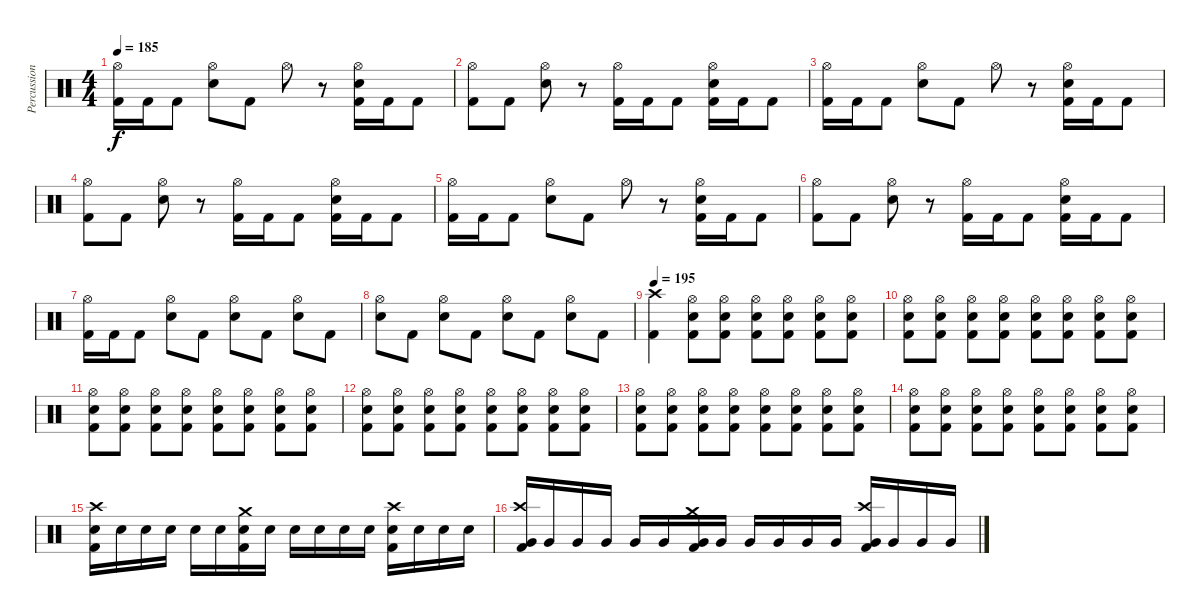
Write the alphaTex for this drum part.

\track ("Percussion" "Percussion") {instrument percussion}
\staff {score}
\articulation defaults
\ts (4 4)
\tempo 185
\clef neutral
\ks c
("Hi-Hat (open)" "Kick (hit) 2").16{dy f} "Kick (hit) 2".16 "Kick (hit) 2".8 ("Hi-Hat (open)" "Electric Snare (hit)").8 "Kick (hit) 2".8 "Hi-Hat (open)".8 r.8 ("Hi-Hat (open)" "Electric Snare (hit)" "Kick (hit) 2").16 "Kick (hit) 2".16 "Kick (hit) 2".8 |
("Hi-Hat (open)" "Kick (hit) 2").8 "Kick (hit) 2".8 ("Hi-Hat (open)" "Electric Snare (hit)").8 r.8 ("Hi-Hat (open)" "Kick (hit) 2").16 "Kick (hit) 2".16 "Kick (hit) 2".8 ("Hi-Hat (open)" "Electric Snare (hit)" "Kick (hit) 2").16 "Kick (hit) 2".16 "Kick (hit) 2".8 |
("Hi-Hat (open)" "Kick (hit) 2").16 "Kick (hit) 2".16 "Kick (hit) 2".8 ("Hi-Hat (open)" "Electric Snare (hit)").8 "Kick (hit) 2".8 "Hi-Hat (open)".8 r.8 ("Hi-Hat (open)" "Electric Snare (hit)" "Kick (hit) 2").16 "Kick (hit) 2".16 "Kick (hit) 2".8 |
("Hi-Hat (open)" "Kick (hit) 2").8 "Kick (hit) 2".8 ("Hi-Hat (open)" "Electric Snare (hit)").8 r.8 ("Hi-Hat (open)" "Kick (hit) 2").16 "Kick (hit) 2".16 "Kick (hit) 2".8 ("Hi-Hat (open)" "Electric Snare (hit)" "Kick (hit) 2").16 "Kick (hit) 2".16 "Kick (hit) 2".8 |
("Hi-Hat (open)" "Kick (hit) 2").16 "Kick (hit) 2".16 "Kick (hit) 2".8 ("Hi-Hat (open)" "Electric Snare (hit)").8 "Kick (hit) 2".8 "Hi-Hat (open)".8 r.8 ("Hi-Hat (open)" "Electric Snare (hit)" "Kick (hit) 2").16 "Kick (hit) 2".16 "Kick (hit) 2".8 |
("Hi-Hat (open)" "Kick (hit) 2").8 "Kick (hit) 2".8 ("Hi-Hat (open)" "Electric Snare (hit)").8 r.8 ("Hi-Hat (open)" "Kick (hit) 2").16 "Kick (hit) 2".16 "Kick (hit) 2".8 ("Hi-Hat (open)" "Electric Snare (hit)" "Kick (hit) 2").16 "Kick (hit) 2".16 "Kick (hit) 2".8 |
("Hi-Hat (open)" "Kick (hit) 2").16 "Kick (hit) 2".16 "Kick (hit) 2".8 ("Hi-Hat (open)" "Electric Snare (hit)").8 "Kick (hit) 2".8 ("Hi-Hat (open)" "Electric Snare (hit)").8 "Kick (hit) 2".8 ("Hi-Hat (open)" "Electric Snare (hit)").8 "Kick (hit) 2".8 |
("Hi-Hat (open)" "Electric Snare (hit)").8 "Kick (hit) 2".8 ("Hi-Hat (open)" "Electric Snare (hit)").8 "Kick (hit) 2".8 ("Hi-Hat (open)" "Electric Snare (hit)").8 "Kick (hit) 2".8 ("Hi-Hat (open)" "Electric Snare (hit)").8 "Kick (hit) 2".8 |
\tempo 195
("Crash high (hit)" "Kick (hit) 2").4 ("Hi-Hat (open)" "Electric Snare (hit)" "Kick (hit) 2").8 ("Hi-Hat (open)" "Electric Snare (hit)" "Kick (hit) 2").8 ("Hi-Hat (open)" "Electric Snare (hit)" "Kick (hit) 2").8 ("Hi-Hat (open)" "Electric Snare (hit)" "Kick (hit) 2").8 ("Hi-Hat (open)" "Electric Snare (hit)" "Kick (hit) 2").8 ("Hi-Hat (open)" "Electric Snare (hit)" "Kick (hit) 2").8 |
("Hi-Hat (open)" "Electric Snare (hit)" "Kick (hit) 2").8 ("Hi-Hat (open)" "Electric Snare (hit)" "Kick (hit) 2").8 ("Hi-Hat (open)" "Electric Snare (hit)" "Kick (hit) 2").8 ("Hi-Hat (open)" "Electric Snare (hit)" "Kick (hit) 2").8 ("Hi-Hat (open)" "Electric Snare (hit)" "Kick (hit) 2").8 ("Hi-Hat (open)" "Electric Snare (hit)" "Kick (hit) 2").8 ("Hi-Hat (open)" "Electric Snare (hit)" "Kick (hit) 2").8 ("Hi-Hat (open)" "Electric Snare (hit)" "Kick (hit) 2").8 |
("Hi-Hat (open)" "Electric Snare (hit)" "Kick (hit) 2").8 ("Hi-Hat (open)" "Electric Snare (hit)" "Kick (hit) 2").8 ("Hi-Hat (open)" "Electric Snare (hit)" "Kick (hit) 2").8 ("Hi-Hat (open)" "Electric Snare (hit)" "Kick (hit) 2").8 ("Hi-Hat (open)" "Electric Snare (hit)" "Kick (hit) 2").8 ("Hi-Hat (open)" "Electric Snare (hit)" "Kick (hit) 2").8 ("Hi-Hat (open)" "Electric Snare (hit)" "Kick (hit) 2").8 ("Hi-Hat (open)" "Electric Snare (hit)" "Kick (hit) 2").8 |
("Hi-Hat (open)" "Electric Snare (hit)" "Kick (hit) 2").8 ("Hi-Hat (open)" "Electric Snare (hit)" "Kick (hit) 2").8 ("Hi-Hat (open)" "Electric Snare (hit)" "Kick (hit) 2").8 ("Hi-Hat (open)" "Electric Snare (hit)" "Kick (hit) 2").8 ("Hi-Hat (open)" "Electric Snare (hit)" "Kick (hit) 2").8 ("Hi-Hat (open)" "Electric Snare (hit)" "Kick (hit) 2").8 ("Hi-Hat (open)" "Electric Snare (hit)" "Kick (hit) 2").8 ("Hi-Hat (open)" "Electric Snare (hit)" "Kick (hit) 2").8 |
("Hi-Hat (open)" "Electric Snare (hit)" "Kick (hit) 2").8 ("Hi-Hat (open)" "Electric Snare (hit)" "Kick (hit) 2").8 ("Hi-Hat (open)" "Electric Snare (hit)" "Kick (hit) 2").8 ("Hi-Hat (open)" "Electric Snare (hit)" "Kick (hit) 2").8 ("Hi-Hat (open)" "Electric Snare (hit)" "Kick (hit) 2").8 ("Hi-Hat (open)" "Electric Snare (hit)" "Kick (hit) 2").8 ("Hi-Hat (open)" "Electric Snare (hit)" "Kick (hit) 2").8 ("Hi-Hat (open)" "Electric Snare (hit)" "Kick (hit) 2").8 |
("Hi-Hat (open)" "Electric Snare (hit)" "Kick (hit) 2").8 ("Hi-Hat (open)" "Electric Snare (hit)" "Kick (hit) 2").8 ("Hi-Hat (open)" "Electric Snare (hit)" "Kick (hit) 2").8 ("Hi-Hat (open)" "Electric Snare (hit)" "Kick (hit) 2").8 ("Hi-Hat (open)" "Electric Snare (hit)" "Kick (hit) 2").8 ("Hi-Hat (open)" "Electric Snare (hit)" "Kick (hit) 2").8 ("Hi-Hat (open)" "Electric Snare (hit)" "Kick (hit) 2").8 ("Hi-Hat (open)" "Electric Snare (hit)" "Kick (hit) 2").8 |
("Crash high (hit)" "Electric Snare (hit)" "Kick (hit) 2").16 "Electric Snare (hit)".16 "Electric Snare (hit)".16 "Electric Snare (hit)".16 "Electric Snare (hit)".16 "Electric Snare (hit)".16 ("Crash medium (hit)" "Electric Snare (hit)" "Kick (hit) 2").16 "Electric Snare (hit)".16 "Electric Snare (hit)".16 "Electric Snare (hit)".16 "Electric Snare (hit)".16 "Electric Snare (hit)".16 ("Crash high (hit)" "Electric Snare (hit)" "Kick (hit) 2").16 "Electric Snare (hit)".16 "Electric Snare (hit)".16 "Electric Snare (hit)".16 |
("Crash high (hit)" "Very Low Tom (hit)" "Kick (hit) 2").16 "Very Low Tom (hit)".16 "Very Low Tom (hit)".16 "Very Low Tom (hit)".16 "Very Low Tom (hit)".16 "Very Low Tom (hit)".16 ("Crash medium (hit)" "Very Low Tom (hit)" "Kick (hit) 2").16 "Very Low Tom (hit)".16 "Very Low Tom (hit)".16 "Very Low Tom (hit)".16 "Very Low Tom (hit)".16 "Very Low Tom (hit)".16 ("Crash high (hit)" "Very Low Tom (hit)" "Kick (hit) 2").16 "Very Low Tom (hit)".16 "Very Low Tom (hit)".16 "Very Low Tom (hit)".16
